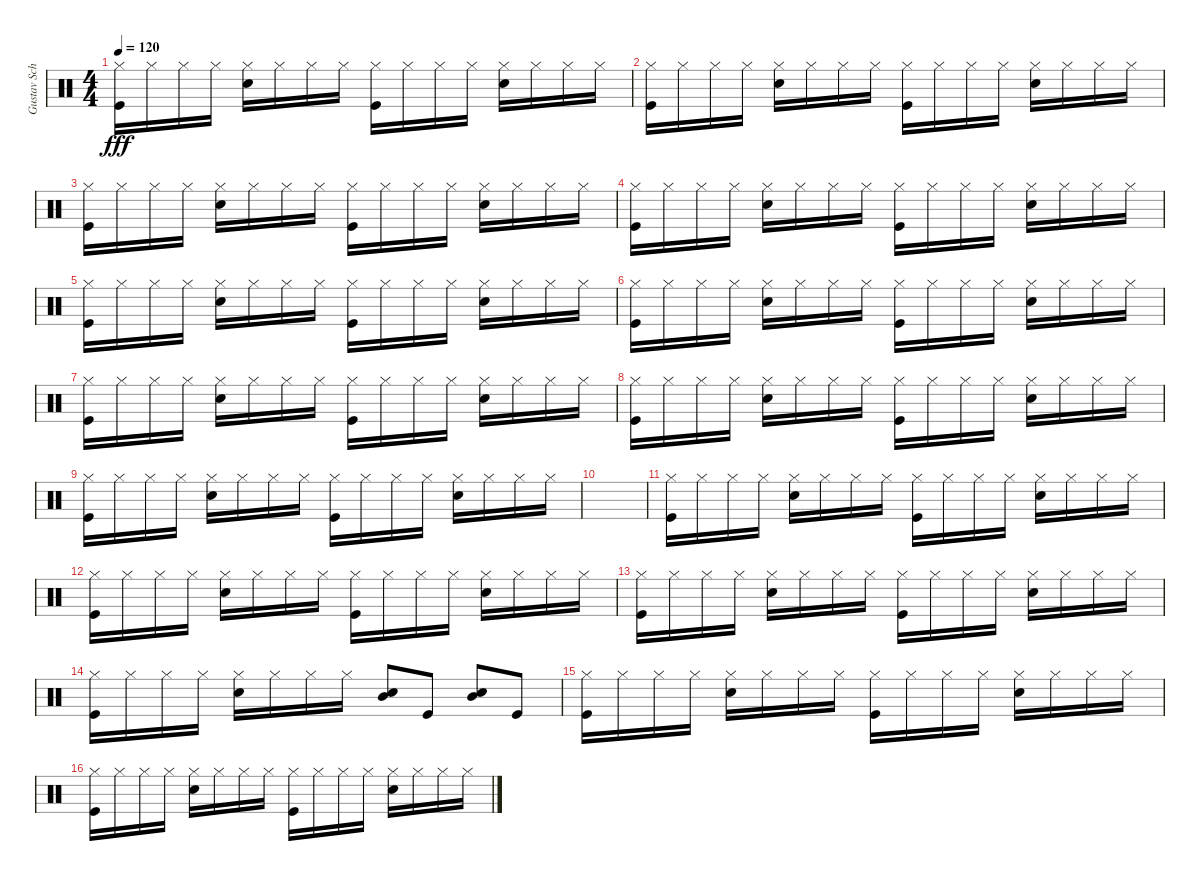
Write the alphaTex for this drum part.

\track ("Gustav Schäfer" "Gustav Sch") {instrument percussion}
\staff {score}
\articulation defaults
\ts (4 4)
\tempo 120
\clef neutral
\ks c
("Hi-Hat (closed)" "Kick (hit)").16{dy fff} "Hi-Hat (closed)".16 "Hi-Hat (closed)".16 "Hi-Hat (closed)".16 ("Hi-Hat (closed)" "Snare (hit) 2").16 "Hi-Hat (closed)".16 "Hi-Hat (closed)".16 "Hi-Hat (closed)".16 ("Hi-Hat (closed)" "Kick (hit)").16 "Hi-Hat (closed)".16 "Hi-Hat (closed)".16 "Hi-Hat (closed)".16 ("Hi-Hat (closed)" "Snare (hit) 2").16 "Hi-Hat (closed)".16 "Hi-Hat (closed)".16 "Hi-Hat (closed)".16 |
("Hi-Hat (closed)" "Kick (hit)").16 "Hi-Hat (closed)".16 "Hi-Hat (closed)".16 "Hi-Hat (closed)".16 ("Hi-Hat (closed)" "Snare (hit) 2").16 "Hi-Hat (closed)".16 "Hi-Hat (closed)".16 "Hi-Hat (closed)".16 ("Hi-Hat (closed)" "Kick (hit)").16 "Hi-Hat (closed)".16 "Hi-Hat (closed)".16 "Hi-Hat (closed)".16 ("Hi-Hat (closed)" "Snare (hit) 2").16 "Hi-Hat (closed)".16 "Hi-Hat (closed)".16 "Hi-Hat (closed)".16 |
("Hi-Hat (closed)" "Kick (hit)").16 "Hi-Hat (closed)".16 "Hi-Hat (closed)".16 "Hi-Hat (closed)".16 ("Hi-Hat (closed)" "Snare (hit) 2").16 "Hi-Hat (closed)".16 "Hi-Hat (closed)".16 "Hi-Hat (closed)".16 ("Hi-Hat (closed)" "Kick (hit)").16 "Hi-Hat (closed)".16 "Hi-Hat (closed)".16 "Hi-Hat (closed)".16 ("Hi-Hat (closed)" "Snare (hit) 2").16 "Hi-Hat (closed)".16 "Hi-Hat (closed)".16 "Hi-Hat (closed)".16 |
("Hi-Hat (closed)" "Kick (hit)").16 "Hi-Hat (closed)".16 "Hi-Hat (closed)".16 "Hi-Hat (closed)".16 ("Hi-Hat (closed)" "Snare (hit) 2").16 "Hi-Hat (closed)".16 "Hi-Hat (closed)".16 "Hi-Hat (closed)".16 ("Hi-Hat (closed)" "Kick (hit)").16 "Hi-Hat (closed)".16 "Hi-Hat (closed)".16 "Hi-Hat (closed)".16 ("Hi-Hat (closed)" "Snare (hit) 2").16 "Hi-Hat (closed)".16 "Hi-Hat (closed)".16 "Hi-Hat (closed)".16 |
("Hi-Hat (closed)" "Kick (hit)").16 "Hi-Hat (closed)".16 "Hi-Hat (closed)".16 "Hi-Hat (closed)".16 ("Hi-Hat (closed)" "Snare (hit) 2").16 "Hi-Hat (closed)".16 "Hi-Hat (closed)".16 "Hi-Hat (closed)".16 ("Hi-Hat (closed)" "Kick (hit)").16 "Hi-Hat (closed)".16 "Hi-Hat (closed)".16 "Hi-Hat (closed)".16 ("Hi-Hat (closed)" "Snare (hit) 2").16 "Hi-Hat (closed)".16 "Hi-Hat (closed)".16 "Hi-Hat (closed)".16 |
("Hi-Hat (closed)" "Kick (hit)").16 "Hi-Hat (closed)".16 "Hi-Hat (closed)".16 "Hi-Hat (closed)".16 ("Hi-Hat (closed)" "Snare (hit) 2").16 "Hi-Hat (closed)".16 "Hi-Hat (closed)".16 "Hi-Hat (closed)".16 ("Hi-Hat (closed)" "Kick (hit)").16 "Hi-Hat (closed)".16 "Hi-Hat (closed)".16 "Hi-Hat (closed)".16 ("Hi-Hat (closed)" "Snare (hit) 2").16 "Hi-Hat (closed)".16 "Hi-Hat (closed)".16 "Hi-Hat (closed)".16 |
("Hi-Hat (closed)" "Kick (hit)").16 "Hi-Hat (closed)".16 "Hi-Hat (closed)".16 "Hi-Hat (closed)".16 ("Hi-Hat (closed)" "Snare (hit) 2").16 "Hi-Hat (closed)".16 "Hi-Hat (closed)".16 "Hi-Hat (closed)".16 ("Hi-Hat (closed)" "Kick (hit)").16 "Hi-Hat (closed)".16 "Hi-Hat (closed)".16 "Hi-Hat (closed)".16 ("Hi-Hat (closed)" "Snare (hit) 2").16 "Hi-Hat (closed)".16 "Hi-Hat (closed)".16 "Hi-Hat (closed)".16 |
("Hi-Hat (closed)" "Kick (hit)").16 "Hi-Hat (closed)".16 "Hi-Hat (closed)".16 "Hi-Hat (closed)".16 ("Hi-Hat (closed)" "Snare (hit) 2").16 "Hi-Hat (closed)".16 "Hi-Hat (closed)".16 "Hi-Hat (closed)".16 ("Hi-Hat (closed)" "Kick (hit)").16 "Hi-Hat (closed)".16 "Hi-Hat (closed)".16 "Hi-Hat (closed)".16 ("Hi-Hat (closed)" "Snare (hit) 2").16 "Hi-Hat (closed)".16 "Hi-Hat (closed)".16 "Hi-Hat (closed)".16 |
("Hi-Hat (closed)" "Kick (hit)").16 "Hi-Hat (closed)".16 "Hi-Hat (closed)".16 "Hi-Hat (closed)".16 ("Hi-Hat (closed)" "Snare (hit) 2").16 "Hi-Hat (closed)".16 "Hi-Hat (closed)".16 "Hi-Hat (closed)".16 ("Hi-Hat (closed)" "Kick (hit)").16 "Hi-Hat (closed)".16 "Hi-Hat (closed)".16 "Hi-Hat (closed)".16 ("Hi-Hat (closed)" "Snare (hit) 2").16 "Hi-Hat (closed)".16 "Hi-Hat (closed)".16 "Hi-Hat (closed)".16 |
|
("Hi-Hat (closed)" "Kick (hit)").16 "Hi-Hat (closed)".16 "Hi-Hat (closed)".16 "Hi-Hat (closed)".16 ("Hi-Hat (closed)" "Snare (hit) 2").16 "Hi-Hat (closed)".16 "Hi-Hat (closed)".16 "Hi-Hat (closed)".16 ("Hi-Hat (closed)" "Kick (hit)").16 "Hi-Hat (closed)".16 "Hi-Hat (closed)".16 "Hi-Hat (closed)".16 ("Hi-Hat (closed)" "Snare (hit) 2").16 "Hi-Hat (closed)".16 "Hi-Hat (closed)".16 "Hi-Hat (closed)".16 |
("Hi-Hat (closed)" "Kick (hit)").16 "Hi-Hat (closed)".16 "Hi-Hat (closed)".16 "Hi-Hat (closed)".16 ("Hi-Hat (closed)" "Snare (hit) 2").16 "Hi-Hat (closed)".16 "Hi-Hat (closed)".16 "Hi-Hat (closed)".16 ("Hi-Hat (closed)" "Kick (hit)").16 "Hi-Hat (closed)".16 "Hi-Hat (closed)".16 "Hi-Hat (closed)".16 ("Hi-Hat (closed)" "Snare (hit) 2").16 "Hi-Hat (closed)".16 "Hi-Hat (closed)".16 "Hi-Hat (closed)".16 |
("Hi-Hat (closed)" "Kick (hit)").16 "Hi-Hat (closed)".16 "Hi-Hat (closed)".16 "Hi-Hat (closed)".16 ("Hi-Hat (closed)" "Snare (hit) 2").16 "Hi-Hat (closed)".16 "Hi-Hat (closed)".16 "Hi-Hat (closed)".16 ("Hi-Hat (closed)" "Kick (hit)").16 "Hi-Hat (closed)".16 "Hi-Hat (closed)".16 "Hi-Hat (closed)".16 ("Hi-Hat (closed)" "Snare (hit) 2").16 "Hi-Hat (closed)".16 "Hi-Hat (closed)".16 "Hi-Hat (closed)".16 |
("Hi-Hat (closed)" "Kick (hit)").16 "Hi-Hat (closed)".16 "Hi-Hat (closed)".16 "Hi-Hat (closed)".16 ("Hi-Hat (closed)" "Snare (hit) 2").16 "Hi-Hat (closed)".16 "Hi-Hat (closed)".16 "Hi-Hat (closed)".16 ("Snare (hit) 2" "Mid Tom (hit)").8 "Kick (hit)".8 ("Mid Tom (hit)" "Snare (hit) 2").8 "Kick (hit)".8 |
("Hi-Hat (closed)" "Kick (hit)").16 "Hi-Hat (closed)".16 "Hi-Hat (closed)".16 "Hi-Hat (closed)".16 ("Hi-Hat (closed)" "Snare (hit) 2").16 "Hi-Hat (closed)".16 "Hi-Hat (closed)".16 "Hi-Hat (closed)".16 ("Hi-Hat (closed)" "Kick (hit)").16 "Hi-Hat (closed)".16 "Hi-Hat (closed)".16 "Hi-Hat (closed)".16 ("Hi-Hat (closed)" "Snare (hit) 2").16 "Hi-Hat (closed)".16 "Hi-Hat (closed)".16 "Hi-Hat (closed)".16 |
("Hi-Hat (closed)" "Kick (hit)").16 "Hi-Hat (closed)".16 "Hi-Hat (closed)".16 "Hi-Hat (closed)".16 ("Hi-Hat (closed)" "Snare (hit) 2").16 "Hi-Hat (closed)".16 "Hi-Hat (closed)".16 "Hi-Hat (closed)".16 ("Hi-Hat (closed)" "Kick (hit)").16 "Hi-Hat (closed)".16 "Hi-Hat (closed)".16 "Hi-Hat (closed)".16 ("Hi-Hat (closed)" "Snare (hit) 2").16 "Hi-Hat (closed)".16 "Hi-Hat (closed)".16 "Hi-Hat (closed)".16
